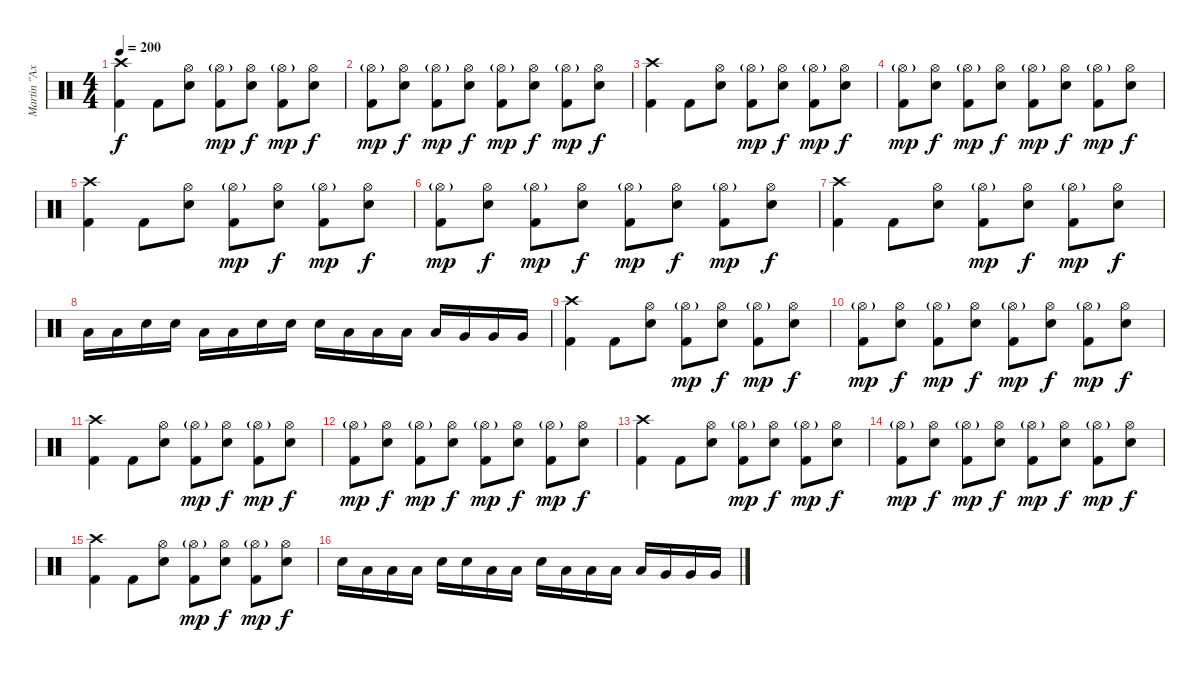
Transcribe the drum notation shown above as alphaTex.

\track ("Martin \"Axe\" Axenrot" "Martin \"Ax") {instrument percussion}
\staff {score}
\articulation defaults
\ts (4 4)
\tempo 200
\clef neutral
\ks c
("Crash high (hit)" "Kick (hit) 2").4{dy f} "Kick (hit) 2".8 ("Hi-Hat (open)" "Electric Snare (hit)").8 ("Hi-Hat (open)"{g} "Kick (hit) 2").8{dy mp} ("Hi-Hat (open)" "Electric Snare (hit)").8{dy f} ("Hi-Hat (open)"{g} "Kick (hit) 2").8{dy mp} ("Hi-Hat (open)" "Electric Snare (hit)").8{dy f} |
("Hi-Hat (open)"{g} "Kick (hit) 2").8{dy mp} ("Hi-Hat (open)" "Electric Snare (hit)").8{dy f} ("Hi-Hat (open)"{g} "Kick (hit) 2").8{dy mp} ("Hi-Hat (open)" "Electric Snare (hit)").8{dy f} ("Hi-Hat (open)"{g} "Kick (hit) 2").8{dy mp} ("Hi-Hat (open)" "Electric Snare (hit)").8{dy f} ("Hi-Hat (open)"{g} "Kick (hit) 2").8{dy mp} ("Hi-Hat (open)" "Electric Snare (hit)").8{dy f} |
("Crash high (hit)" "Kick (hit) 2").4 "Kick (hit) 2".8 ("Hi-Hat (open)" "Electric Snare (hit)").8 ("Hi-Hat (open)"{g} "Kick (hit) 2").8{dy mp} ("Hi-Hat (open)" "Electric Snare (hit)").8{dy f} ("Hi-Hat (open)"{g} "Kick (hit) 2").8{dy mp} ("Hi-Hat (open)" "Electric Snare (hit)").8{dy f} |
("Hi-Hat (open)"{g} "Kick (hit) 2").8{dy mp} ("Hi-Hat (open)" "Electric Snare (hit)").8{dy f} ("Hi-Hat (open)"{g} "Kick (hit) 2").8{dy mp} ("Hi-Hat (open)" "Electric Snare (hit)").8{dy f} ("Hi-Hat (open)"{g} "Kick (hit) 2").8{dy mp} ("Hi-Hat (open)" "Electric Snare (hit)").8{dy f} ("Hi-Hat (open)"{g} "Kick (hit) 2").8{dy mp} ("Hi-Hat (open)" "Electric Snare (hit)").8{dy f} |
("Crash high (hit)" "Kick (hit) 2").4 "Kick (hit) 2".8 ("Hi-Hat (open)" "Electric Snare (hit)").8 ("Hi-Hat (open)"{g} "Kick (hit) 2").8{dy mp} ("Hi-Hat (open)" "Electric Snare (hit)").8{dy f} ("Hi-Hat (open)"{g} "Kick (hit) 2").8{dy mp} ("Hi-Hat (open)" "Electric Snare (hit)").8{dy f} |
("Hi-Hat (open)"{g} "Kick (hit) 2").8{dy mp} ("Hi-Hat (open)" "Electric Snare (hit)").8{dy f} ("Hi-Hat (open)"{g} "Kick (hit) 2").8{dy mp} ("Hi-Hat (open)" "Electric Snare (hit)").8{dy f} ("Hi-Hat (open)"{g} "Kick (hit) 2").8{dy mp} ("Hi-Hat (open)" "Electric Snare (hit)").8{dy f} ("Hi-Hat (open)"{g} "Kick (hit) 2").8{dy mp} ("Hi-Hat (open)" "Electric Snare (hit)").8{dy f} |
("Crash high (hit)" "Kick (hit) 2").4 "Kick (hit) 2".8 ("Hi-Hat (open)" "Electric Snare (hit)").8 ("Hi-Hat (open)"{g} "Kick (hit) 2").8{dy mp} ("Hi-Hat (open)" "Electric Snare (hit)").8{dy f} ("Hi-Hat (open)"{g} "Kick (hit) 2").8{dy mp} ("Hi-Hat (open)" "Electric Snare (hit)").8{dy f} |
"Low Tom (hit)".16 "Low Tom (hit)".16 "Electric Snare (hit)".16 "Electric Snare (hit)".16 "Low Tom (hit)".16 "Low Tom (hit)".16 "Electric Snare (hit)".16 "Electric Snare (hit)".16 "Electric Snare (hit)".16 "Low Tom (hit)".16 "Low Tom (hit)".16 "Low Tom (hit)".16 "Low Tom (hit)".16 "Very Low Tom (hit)".16 "Very Low Tom (hit)".16 "Very Low Tom (hit)".16 |
("Crash high (hit)" "Kick (hit) 2").4 "Kick (hit) 2".8 ("Hi-Hat (open)" "Electric Snare (hit)").8 ("Hi-Hat (open)"{g} "Kick (hit) 2").8{dy mp} ("Hi-Hat (open)" "Electric Snare (hit)").8{dy f} ("Hi-Hat (open)"{g} "Kick (hit) 2").8{dy mp} ("Hi-Hat (open)" "Electric Snare (hit)").8{dy f} |
("Hi-Hat (open)"{g} "Kick (hit) 2").8{dy mp} ("Hi-Hat (open)" "Electric Snare (hit)").8{dy f} ("Hi-Hat (open)"{g} "Kick (hit) 2").8{dy mp} ("Hi-Hat (open)" "Electric Snare (hit)").8{dy f} ("Hi-Hat (open)"{g} "Kick (hit) 2").8{dy mp} ("Hi-Hat (open)" "Electric Snare (hit)").8{dy f} ("Hi-Hat (open)"{g} "Kick (hit) 2").8{dy mp} ("Hi-Hat (open)" "Electric Snare (hit)").8{dy f} |
("Crash high (hit)" "Kick (hit) 2").4 "Kick (hit) 2".8 ("Hi-Hat (open)" "Electric Snare (hit)").8 ("Hi-Hat (open)"{g} "Kick (hit) 2").8{dy mp} ("Hi-Hat (open)" "Electric Snare (hit)").8{dy f} ("Hi-Hat (open)"{g} "Kick (hit) 2").8{dy mp} ("Hi-Hat (open)" "Electric Snare (hit)").8{dy f} |
("Hi-Hat (open)"{g} "Kick (hit) 2").8{dy mp} ("Hi-Hat (open)" "Electric Snare (hit)").8{dy f} ("Hi-Hat (open)"{g} "Kick (hit) 2").8{dy mp} ("Hi-Hat (open)" "Electric Snare (hit)").8{dy f} ("Hi-Hat (open)"{g} "Kick (hit) 2").8{dy mp} ("Hi-Hat (open)" "Electric Snare (hit)").8{dy f} ("Hi-Hat (open)"{g} "Kick (hit) 2").8{dy mp} ("Hi-Hat (open)" "Electric Snare (hit)").8{dy f} |
("Crash high (hit)" "Kick (hit) 2").4 "Kick (hit) 2".8 ("Hi-Hat (open)" "Electric Snare (hit)").8 ("Hi-Hat (open)"{g} "Kick (hit) 2").8{dy mp} ("Hi-Hat (open)" "Electric Snare (hit)").8{dy f} ("Hi-Hat (open)"{g} "Kick (hit) 2").8{dy mp} ("Hi-Hat (open)" "Electric Snare (hit)").8{dy f} |
("Hi-Hat (open)"{g} "Kick (hit) 2").8{dy mp} ("Hi-Hat (open)" "Electric Snare (hit)").8{dy f} ("Hi-Hat (open)"{g} "Kick (hit) 2").8{dy mp} ("Hi-Hat (open)" "Electric Snare (hit)").8{dy f} ("Hi-Hat (open)"{g} "Kick (hit) 2").8{dy mp} ("Hi-Hat (open)" "Electric Snare (hit)").8{dy f} ("Hi-Hat (open)"{g} "Kick (hit) 2").8{dy mp} ("Hi-Hat (open)" "Electric Snare (hit)").8{dy f} |
("Crash high (hit)" "Kick (hit) 2").4 "Kick (hit) 2".8 ("Hi-Hat (open)" "Electric Snare (hit)").8 ("Hi-Hat (open)"{g} "Kick (hit) 2").8{dy mp} ("Hi-Hat (open)" "Electric Snare (hit)").8{dy f} ("Hi-Hat (open)"{g} "Kick (hit) 2").8{dy mp} ("Hi-Hat (open)" "Electric Snare (hit)").8{dy f} |
"Electric Snare (hit)".16 "Low Tom (hit)".16 "Low Tom (hit)".16 "Low Tom (hit)".16 "Electric Snare (hit)".16 "Electric Snare (hit)".16 "Low Tom (hit)".16 "Low Tom (hit)".16 "Electric Snare (hit)".16 "Low Tom (hit)".16 "Low Tom (hit)".16 "Low Tom (hit)".16 "Low Tom (hit)".16 "Very Low Tom (hit)".16 "Very Low Tom (hit)".16 "Very Low Tom (hit)".16
